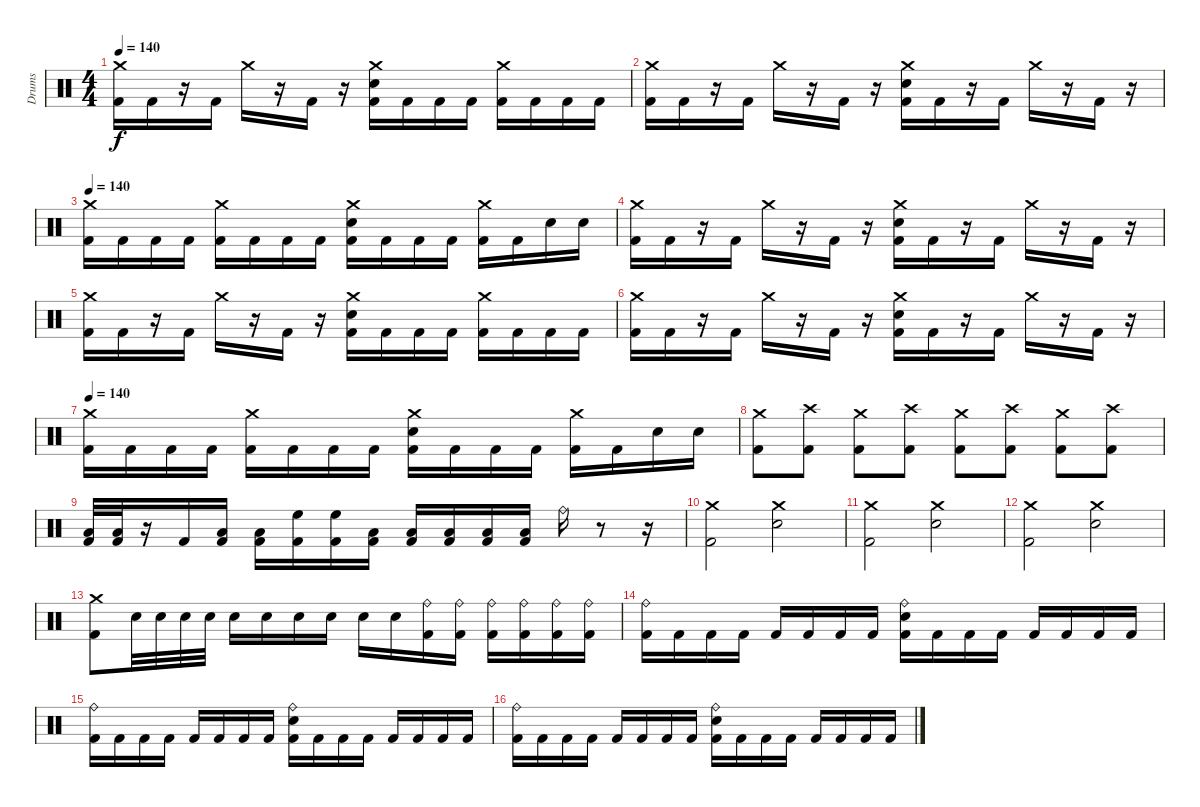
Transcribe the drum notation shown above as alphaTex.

\track ("Drums" "Drums") {instrument percussion}
\staff {score}
\articulation defaults
\ts (4 4)
\tempo 140
\clef neutral
\ks c
("Crash medium (hit)" "Kick (hit) 2").16{dy f} "Kick (hit) 2".16 r.16 "Kick (hit) 2".16 "Crash medium (hit)".16 r.16 "Kick (hit) 2".16 r.16 ("Crash medium (hit)" "Electric Snare (hit)" "Kick (hit) 2").16 "Kick (hit) 2".16 "Kick (hit) 2".16 "Kick (hit) 2".16 ("Crash medium (hit)" "Kick (hit) 2").16 "Kick (hit) 2".16 "Kick (hit) 2".16 "Kick (hit) 2".16 |
("Crash medium (hit)" "Kick (hit) 2").16 "Kick (hit) 2".16 r.16 "Kick (hit) 2".16 "Crash medium (hit)".16 r.16 "Kick (hit) 2".16 r.16 ("Crash medium (hit)" "Electric Snare (hit)" "Kick (hit) 2").16 "Kick (hit) 2".16 r.16 "Kick (hit) 2".16 "Crash medium (hit)".16 r.16 "Kick (hit) 2".16 r.16 |
\tempo 140
("Crash medium (hit)" "Kick (hit) 2").16 "Kick (hit) 2".16 "Kick (hit) 2".16 "Kick (hit) 2".16 ("Crash medium (hit)" "Kick (hit) 2").16 "Kick (hit) 2".16 "Kick (hit) 2".16 "Kick (hit) 2".16 ("Crash medium (hit)" "Electric Snare (hit)" "Kick (hit) 2").16 "Kick (hit) 2".16 "Kick (hit) 2".16 "Kick (hit) 2".16 ("Crash medium (hit)" "Kick (hit) 2").16 "Kick (hit) 2".16 "Electric Snare (hit)".16 "Electric Snare (hit)".16 |
("Crash medium (hit)" "Kick (hit) 2").16 "Kick (hit) 2".16 r.16 "Kick (hit) 2".16 "Crash medium (hit)".16 r.16 "Kick (hit) 2".16 r.16 ("Crash medium (hit)" "Electric Snare (hit)" "Kick (hit) 2").16 "Kick (hit) 2".16 r.16 "Kick (hit) 2".16 "Crash medium (hit)".16 r.16 "Kick (hit) 2".16 r.16 |
("Crash medium (hit)" "Kick (hit) 2").16 "Kick (hit) 2".16 r.16 "Kick (hit) 2".16 "Crash medium (hit)".16 r.16 "Kick (hit) 2".16 r.16 ("Crash medium (hit)" "Electric Snare (hit)" "Kick (hit) 2").16 "Kick (hit) 2".16 "Kick (hit) 2".16 "Kick (hit) 2".16 ("Crash medium (hit)" "Kick (hit) 2").16 "Kick (hit) 2".16 "Kick (hit) 2".16 "Kick (hit) 2".16 |
("Crash medium (hit)" "Kick (hit) 2").16 "Kick (hit) 2".16 r.16 "Kick (hit) 2".16 "Crash medium (hit)".16 r.16 "Kick (hit) 2".16 r.16 ("Crash medium (hit)" "Electric Snare (hit)" "Kick (hit) 2").16 "Kick (hit) 2".16 r.16 "Kick (hit) 2".16 "Crash medium (hit)".16 r.16 "Kick (hit) 2".16 r.16 |
\tempo 140
("Crash medium (hit)" "Kick (hit) 2").16 "Kick (hit) 2".16 "Kick (hit) 2".16 "Kick (hit) 2".16 ("Crash medium (hit)" "Kick (hit) 2").16 "Kick (hit) 2".16 "Kick (hit) 2".16 "Kick (hit) 2".16 ("Crash medium (hit)" "Electric Snare (hit)" "Kick (hit) 2").16 "Kick (hit) 2".16 "Kick (hit) 2".16 "Kick (hit) 2".16 ("Crash medium (hit)" "Kick (hit) 2").16 "Kick (hit) 2".16 "Electric Snare (hit)".16 "Electric Snare (hit)".16 |
("Crash medium (hit)" "Kick (hit) 2").8 ("Crash high (hit)" "Kick (hit) 2").8 ("Crash medium (hit)" "Kick (hit) 2").8 ("Crash high (hit)" "Kick (hit) 2").8 ("Crash medium (hit)" "Kick (hit) 2").8 ("Crash high (hit)" "Kick (hit) 2").8 ("Crash medium (hit)" "Kick (hit) 2").8 ("Crash high (hit)" "Kick (hit) 2").8 |
("Low Tom (hit)" "Kick (hit) 2").32 ("Low Tom (hit)" "Kick (hit) 2").32 r.16 "Kick (hit) 2".16 ("Low Tom (hit)" "Kick (hit) 2").16 ("Low Tom (hit)" "Kick (hit) 2").16 ("High Floor Tom (hit)" "Kick (hit) 2").16 ("High Floor Tom (hit)" "Kick (hit) 2").16 ("Low Tom (hit)" "Kick (hit) 2").16 ("Low Tom (hit)" "Kick (hit) 2").16 ("Low Floor Tom (hit)" "Kick (hit) 2").16 ("Low Floor Tom (hit)" "Kick (hit) 2").16 ("Low Floor Tom (hit)" "Kick (hit) 2").16 "Ride (bell)".16 r.8 r.16 |
("Crash medium (hit)" "Kick (hit) 2").2 ("Crash medium (hit)" "Electric Snare (hit)").2 |
("Crash medium (hit)" "Kick (hit) 2").2 ("Crash medium (hit)" "Electric Snare (hit)").2 |
("Crash medium (hit)" "Kick (hit) 2").2 ("Crash medium (hit)" "Electric Snare (hit)").2 |
("Crash medium (hit)" "Kick (hit) 2").8 "Electric Snare (hit)".32 "Electric Snare (hit)".32 "Electric Snare (hit)".32 "Electric Snare (hit)".32 "Electric Snare (hit)".16 "Electric Snare (hit)".16 "Electric Snare (hit)".16 "Electric Snare (hit)".16 "Electric Snare (hit)".16 "Electric Snare (hit)".16 ("Ride (bell)" "Kick (hit) 2").16 ("Ride (bell)" "Kick (hit) 2").16 ("Ride (bell)" "Kick (hit) 2").16 ("Ride (bell)" "Kick (hit) 2").16 ("Ride (bell)" "Kick (hit) 2").16 ("Ride (bell)" "Kick (hit) 2").16 |
("Ride (bell)" "Kick (hit) 2").16 "Kick (hit) 2".16 "Kick (hit) 2".16 "Kick (hit) 2".16 "Kick (hit) 2".16 "Kick (hit) 2".16 "Kick (hit) 2".16 "Kick (hit) 2".16 ("Ride (bell)" "Electric Snare (hit)" "Kick (hit) 2").16 "Kick (hit) 2".16 "Kick (hit) 2".16 "Kick (hit) 2".16 "Kick (hit) 2".16 "Kick (hit) 2".16 "Kick (hit) 2".16 "Kick (hit) 2".16 |
("Ride (bell)" "Kick (hit) 2").16 "Kick (hit) 2".16 "Kick (hit) 2".16 "Kick (hit) 2".16 "Kick (hit) 2".16 "Kick (hit) 2".16 "Kick (hit) 2".16 "Kick (hit) 2".16 ("Ride (bell)" "Electric Snare (hit)" "Kick (hit) 2").16 "Kick (hit) 2".16 "Kick (hit) 2".16 "Kick (hit) 2".16 "Kick (hit) 2".16 "Kick (hit) 2".16 "Kick (hit) 2".16 "Kick (hit) 2".16 |
("Ride (bell)" "Kick (hit) 2").16 "Kick (hit) 2".16 "Kick (hit) 2".16 "Kick (hit) 2".16 "Kick (hit) 2".16 "Kick (hit) 2".16 "Kick (hit) 2".16 "Kick (hit) 2".16 ("Ride (bell)" "Electric Snare (hit)" "Kick (hit) 2").16 "Kick (hit) 2".16 "Kick (hit) 2".16 "Kick (hit) 2".16 "Kick (hit) 2".16 "Kick (hit) 2".16 "Kick (hit) 2".16 "Kick (hit) 2".16
